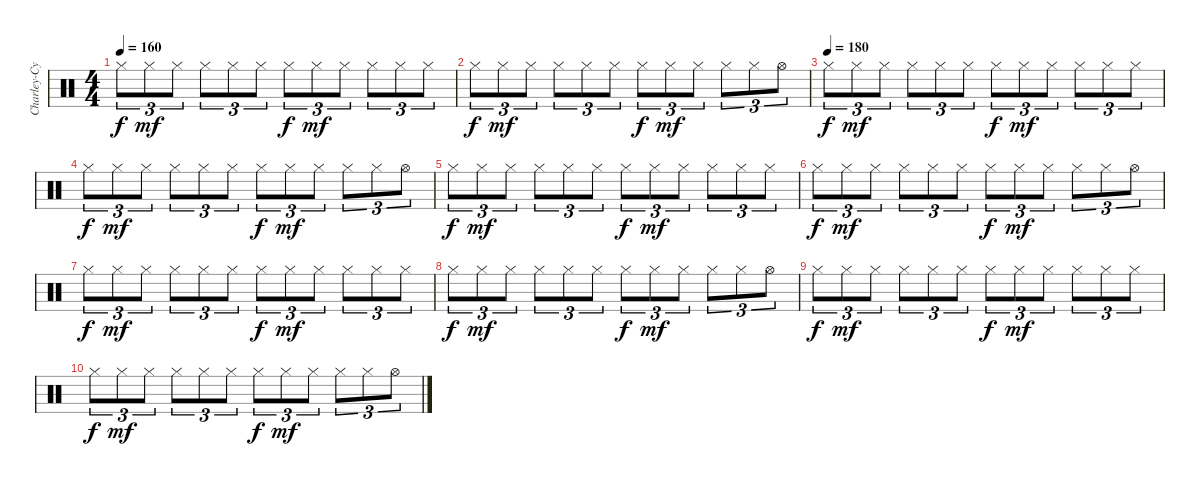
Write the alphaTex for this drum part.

\track ("Charley-Cymbales" "Charley-Cy") {instrument percussion}
\staff {score}
\articulation defaults
\ts (4 4)
\tempo 160
\clef neutral
\ks c "Hi-Hat (closed)".8{tu (3 2) dy f} "Hi-Hat (closed)".8{tu (3 2) dy mf} "Hi-Hat (closed)".8{tu (3 2)} "Hi-Hat (closed)".8{tu (3 2)} "Hi-Hat (closed)".8{tu (3 2)} "Hi-Hat (closed)".8{tu (3 2)} "Hi-Hat (closed)".8{tu (3 2) dy f} "Hi-Hat (closed)".8{tu (3 2) dy mf} "Hi-Hat (closed)".8{tu (3 2)} "Hi-Hat (closed)".8{tu (3 2)} "Hi-Hat (closed)".8{tu (3 2)} "Hi-Hat (closed)".8{tu (3 2)}
|
"Hi-Hat (closed)".8{tu (3 2) dy f} "Hi-Hat (closed)".8{tu (3 2) dy mf} "Hi-Hat (closed)".8{tu (3 2)} "Hi-Hat (closed)".8{tu (3 2)} "Hi-Hat (closed)".8{tu (3 2)} "Hi-Hat (closed)".8{tu (3 2)} "Hi-Hat (closed)".8{tu (3 2) dy f} "Hi-Hat (closed)".8{tu (3 2) dy mf} "Hi-Hat (closed)".8{tu (3 2)} "Hi-Hat (closed)".8{tu (3 2)} "Hi-Hat (closed)".8{tu (3 2)} "Hi-Hat (open)".8{tu (3 2)} |
\tempo (180)
"Hi-Hat (closed)".8{tu (3 2) dy f} "Hi-Hat (closed)".8{tu (3 2) dy mf} "Hi-Hat (closed)".8{tu (3 2)} "Hi-Hat (closed)".8{tu (3 2)} "Hi-Hat (closed)".8{tu (3 2)} "Hi-Hat (closed)".8{tu (3 2)} "Hi-Hat (closed)".8{tu (3 2) dy f} "Hi-Hat (closed)".8{tu (3 2) dy mf} "Hi-Hat (closed)".8{tu (3 2)} "Hi-Hat (closed)".8{tu (3 2)} "Hi-Hat (closed)".8{tu (3 2)} "Hi-Hat (closed)".8{tu (3 2)} |
"Hi-Hat (closed)".8{tu (3 2) dy f} "Hi-Hat (closed)".8{tu (3 2) dy mf} "Hi-Hat (closed)".8{tu (3 2)} "Hi-Hat (closed)".8{tu (3 2)} "Hi-Hat (closed)".8{tu (3 2)} "Hi-Hat (closed)".8{tu (3 2)} "Hi-Hat (closed)".8{tu (3 2) dy f} "Hi-Hat (closed)".8{tu (3 2) dy mf} "Hi-Hat (closed)".8{tu (3 2)} "Hi-Hat (closed)".8{tu (3 2)} "Hi-Hat (closed)".8{tu (3 2)} "Hi-Hat (open)".8{tu (3 2)} |
"Hi-Hat (closed)".8{tu (3 2) dy f} "Hi-Hat (closed)".8{tu (3 2) dy mf} "Hi-Hat (closed)".8{tu (3 2)} "Hi-Hat (closed)".8{tu (3 2)} "Hi-Hat (closed)".8{tu (3 2)} "Hi-Hat (closed)".8{tu (3 2)} "Hi-Hat (closed)".8{tu (3 2) dy f} "Hi-Hat (closed)".8{tu (3 2) dy mf} "Hi-Hat (closed)".8{tu (3 2)} "Hi-Hat (closed)".8{tu (3 2)} "Hi-Hat (closed)".8{tu (3 2)} "Hi-Hat (closed)".8{tu (3 2)} |
"Hi-Hat (closed)".8{tu (3 2) dy f} "Hi-Hat (closed)".8{tu (3 2) dy mf} "Hi-Hat (closed)".8{tu (3 2)} "Hi-Hat (closed)".8{tu (3 2)} "Hi-Hat (closed)".8{tu (3 2)} "Hi-Hat (closed)".8{tu (3 2)} "Hi-Hat (closed)".8{tu (3 2) dy f} "Hi-Hat (closed)".8{tu (3 2) dy mf} "Hi-Hat (closed)".8{tu (3 2)} "Hi-Hat (closed)".8{tu (3 2)} "Hi-Hat (closed)".8{tu (3 2)} "Hi-Hat (open)".8{tu (3 2)} |
"Hi-Hat (closed)".8{tu (3 2) dy f} "Hi-Hat (closed)".8{tu (3 2) dy mf} "Hi-Hat (closed)".8{tu (3 2)} "Hi-Hat (closed)".8{tu (3 2)} "Hi-Hat (closed)".8{tu (3 2)} "Hi-Hat (closed)".8{tu (3 2)} "Hi-Hat (closed)".8{tu (3 2) dy f} "Hi-Hat (closed)".8{tu (3 2) dy mf} "Hi-Hat (closed)".8{tu (3 2)} "Hi-Hat (closed)".8{tu (3 2)} "Hi-Hat (closed)".8{tu (3 2)} "Hi-Hat (closed)".8{tu (3 2)} |
"Hi-Hat (closed)".8{tu (3 2) dy f} "Hi-Hat (closed)".8{tu (3 2) dy mf} "Hi-Hat (closed)".8{tu (3 2)} "Hi-Hat (closed)".8{tu (3 2)} "Hi-Hat (closed)".8{tu (3 2)} "Hi-Hat (closed)".8{tu (3 2)} "Hi-Hat (closed)".8{tu (3 2) dy f} "Hi-Hat (closed)".8{tu (3 2) dy mf} "Hi-Hat (closed)".8{tu (3 2)} "Hi-Hat (closed)".8{tu (3 2)} "Hi-Hat (closed)".8{tu (3 2)} "Hi-Hat (open)".8{tu (3 2)} |
"Hi-Hat (closed)".8{tu (3 2) dy f} "Hi-Hat (closed)".8{tu (3 2) dy mf} "Hi-Hat (closed)".8{tu (3 2)} "Hi-Hat (closed)".8{tu (3 2)} "Hi-Hat (closed)".8{tu (3 2)} "Hi-Hat (closed)".8{tu (3 2)} "Hi-Hat (closed)".8{tu (3 2) dy f} "Hi-Hat (closed)".8{tu (3 2) dy mf} "Hi-Hat (closed)".8{tu (3 2)} "Hi-Hat (closed)".8{tu (3 2)} "Hi-Hat (closed)".8{tu (3 2)} "Hi-Hat (closed)".8{tu (3 2)} |
"Hi-Hat (closed)".8{tu (3 2) dy f} "Hi-Hat (closed)".8{tu (3 2) dy mf} "Hi-Hat (closed)".8{tu (3 2)} "Hi-Hat (closed)".8{tu (3 2)} "Hi-Hat (closed)".8{tu (3 2)} "Hi-Hat (closed)".8{tu (3 2)} "Hi-Hat (closed)".8{tu (3 2) dy f} "Hi-Hat (closed)".8{tu (3 2) dy mf} "Hi-Hat (closed)".8{tu (3 2)} "Hi-Hat (closed)".8{tu (3 2)} "Hi-Hat (closed)".8{tu (3 2)} "Hi-Hat (open)".8{tu (3 2)}
